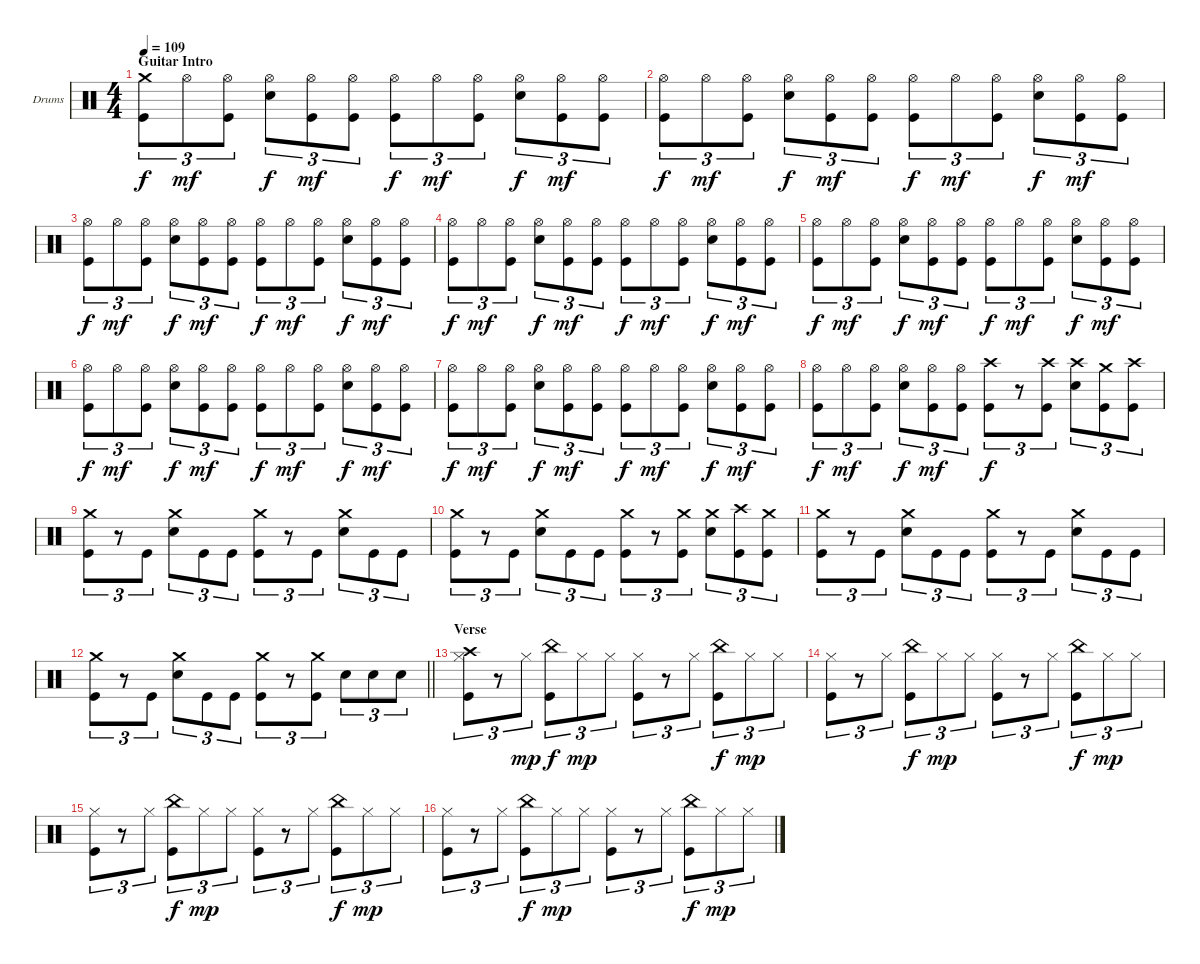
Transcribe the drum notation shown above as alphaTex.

\bracketExtendMode groupsimilarinstruments
\firstSystemTrackNameOrientation horizontal
\otherSystemsTrackNameOrientation horizontal
\track ("Drumkit" "Drums") {instrument percussion}
\staff {score}
\articulation defaults
\ts (4 4)
\section ("" "Guitar Intro")
\tempo 109
\clef neutral
\ks c
("Crash medium (hit)" "Kick (hit)").8{tu (3 2) dy f} "Hi-Hat (open)".8{tu (3 2) dy mf} ("Hi-Hat (open)" "Kick (hit)").8{tu (3 2)} ("Hi-Hat (open)" "Snare (hit) 2").8{tu (3 2) dy f} ("Hi-Hat (open)" "Kick (hit)").8{tu (3 2) dy mf} ("Hi-Hat (open)" "Kick (hit)").8{tu (3 2)} ("Hi-Hat (open)" "Kick (hit)").8{tu (3 2) dy f} "Hi-Hat (open)".8{tu (3 2) dy mf} ("Hi-Hat (open)" "Kick (hit)").8{tu (3 2)} ("Hi-Hat (open)" "Snare (hit) 2").8{tu (3 2) dy f} ("Hi-Hat (open)" "Kick (hit)").8{tu (3 2) dy mf} ("Hi-Hat (open)" "Kick (hit)").8{tu (3 2)} |
("Hi-Hat (open)" "Kick (hit)").8{tu (3 2) dy f} "Hi-Hat (open)".8{tu (3 2) dy mf} ("Hi-Hat (open)" "Kick (hit)").8{tu (3 2)} ("Hi-Hat (open)" "Snare (hit) 2").8{tu (3 2) dy f} ("Hi-Hat (open)" "Kick (hit)").8{tu (3 2) dy mf} ("Hi-Hat (open)" "Kick (hit)").8{tu (3 2)} ("Hi-Hat (open)" "Kick (hit)").8{tu (3 2) dy f} "Hi-Hat (open)".8{tu (3 2) dy mf} ("Hi-Hat (open)" "Kick (hit)").8{tu (3 2)} ("Hi-Hat (open)" "Snare (hit) 2").8{tu (3 2) dy f} ("Hi-Hat (open)" "Kick (hit)").8{tu (3 2) dy mf} ("Hi-Hat (open)" "Kick (hit)").8{tu (3 2)} |
("Hi-Hat (open)" "Kick (hit)").8{tu (3 2) dy f} "Hi-Hat (open)".8{tu (3 2) dy mf} ("Hi-Hat (open)" "Kick (hit)").8{tu (3 2)} ("Hi-Hat (open)" "Snare (hit) 2").8{tu (3 2) dy f} ("Hi-Hat (open)" "Kick (hit)").8{tu (3 2) dy mf} ("Hi-Hat (open)" "Kick (hit)").8{tu (3 2)} ("Hi-Hat (open)" "Kick (hit)").8{tu (3 2) dy f} "Hi-Hat (open)".8{tu (3 2) dy mf} ("Hi-Hat (open)" "Kick (hit)").8{tu (3 2)} ("Hi-Hat (open)" "Snare (hit) 2").8{tu (3 2) dy f} ("Hi-Hat (open)" "Kick (hit)").8{tu (3 2) dy mf} ("Hi-Hat (open)" "Kick (hit)").8{tu (3 2)} |
("Hi-Hat (open)" "Kick (hit)").8{tu (3 2) dy f} "Hi-Hat (open)".8{tu (3 2) dy mf} ("Hi-Hat (open)" "Kick (hit)").8{tu (3 2)} ("Hi-Hat (open)" "Snare (hit) 2").8{tu (3 2) dy f} ("Hi-Hat (open)" "Kick (hit)").8{tu (3 2) dy mf} ("Hi-Hat (open)" "Kick (hit)").8{tu (3 2)} ("Hi-Hat (open)" "Kick (hit)").8{tu (3 2) dy f} "Hi-Hat (open)".8{tu (3 2) dy mf} ("Hi-Hat (open)" "Kick (hit)").8{tu (3 2)} ("Hi-Hat (open)" "Snare (hit) 2").8{tu (3 2) dy f} ("Hi-Hat (open)" "Kick (hit)").8{tu (3 2) dy mf} ("Hi-Hat (open)" "Kick (hit)").8{tu (3 2)} |
("Hi-Hat (open)" "Kick (hit)").8{tu (3 2) dy f} "Hi-Hat (open)".8{tu (3 2) dy mf} ("Hi-Hat (open)" "Kick (hit)").8{tu (3 2)} ("Hi-Hat (open)" "Snare (hit) 2").8{tu (3 2) dy f} ("Hi-Hat (open)" "Kick (hit)").8{tu (3 2) dy mf} ("Hi-Hat (open)" "Kick (hit)").8{tu (3 2)} ("Hi-Hat (open)" "Kick (hit)").8{tu (3 2) dy f} "Hi-Hat (open)".8{tu (3 2) dy mf} ("Hi-Hat (open)" "Kick (hit)").8{tu (3 2)} ("Hi-Hat (open)" "Snare (hit) 2").8{tu (3 2) dy f} ("Hi-Hat (open)" "Kick (hit)").8{tu (3 2) dy mf} ("Hi-Hat (open)" "Kick (hit)").8{tu (3 2)} |
("Hi-Hat (open)" "Kick (hit)").8{tu (3 2) dy f} "Hi-Hat (open)".8{tu (3 2) dy mf} ("Hi-Hat (open)" "Kick (hit)").8{tu (3 2)} ("Hi-Hat (open)" "Snare (hit) 2").8{tu (3 2) dy f} ("Hi-Hat (open)" "Kick (hit)").8{tu (3 2) dy mf} ("Hi-Hat (open)" "Kick (hit)").8{tu (3 2)} ("Hi-Hat (open)" "Kick (hit)").8{tu (3 2) dy f} "Hi-Hat (open)".8{tu (3 2) dy mf} ("Hi-Hat (open)" "Kick (hit)").8{tu (3 2)} ("Hi-Hat (open)" "Snare (hit) 2").8{tu (3 2) dy f} ("Hi-Hat (open)" "Kick (hit)").8{tu (3 2) dy mf} ("Hi-Hat (open)" "Kick (hit)").8{tu (3 2)} |
("Hi-Hat (open)" "Kick (hit)").8{tu (3 2) dy f} "Hi-Hat (open)".8{tu (3 2) dy mf} ("Hi-Hat (open)" "Kick (hit)").8{tu (3 2)} ("Hi-Hat (open)" "Snare (hit) 2").8{tu (3 2) dy f} ("Hi-Hat (open)" "Kick (hit)").8{tu (3 2) dy mf} ("Hi-Hat (open)" "Kick (hit)").8{tu (3 2)} ("Hi-Hat (open)" "Kick (hit)").8{tu (3 2) dy f} "Hi-Hat (open)".8{tu (3 2) dy mf} ("Hi-Hat (open)" "Kick (hit)").8{tu (3 2)} ("Hi-Hat (open)" "Snare (hit) 2").8{tu (3 2) dy f} ("Hi-Hat (open)" "Kick (hit)").8{tu (3 2) dy mf} ("Hi-Hat (open)" "Kick (hit)").8{tu (3 2)} |
("Hi-Hat (open)" "Kick (hit)").8{tu (3 2) dy f} "Hi-Hat (open)".8{tu (3 2) dy mf} ("Hi-Hat (open)" "Kick (hit)").8{tu (3 2)} ("Hi-Hat (open)" "Snare (hit) 2").8{tu (3 2) dy f} ("Hi-Hat (open)" "Kick (hit)").8{tu (3 2) dy mf} ("Hi-Hat (open)" "Kick (hit)").8{tu (3 2)} ("Crash high (hit)" "Kick (hit)").8{tu (3 2) dy f} r.8{tu (3 2)} ("Crash high (hit)" "Kick (hit)").8{tu (3 2)} ("Crash high (hit)" "Snare (hit) 2").8{tu (3 2)} ("Crash medium (hit)" "Kick (hit)").8{tu (3 2)} ("Crash high (hit)" "Kick (hit)").8{tu (3 2)} |
("Crash medium (hit)" "Kick (hit)").8{tu (3 2)} r.8{tu (3 2)} "Kick (hit)".8{tu (3 2)} ("Crash medium (hit)" "Snare (hit) 2").8{tu (3 2)} "Kick (hit)".8{tu (3 2)} "Kick (hit)".8{tu (3 2)} ("Crash medium (hit)" "Kick (hit)").8{tu (3 2)} r.8{tu (3 2)} "Kick (hit)".8{tu (3 2)} ("Crash medium (hit)" "Snare (hit) 2").8{tu (3 2)} "Kick (hit)".8{tu (3 2)} "Kick (hit)".8{tu (3 2)} |
("Crash medium (hit)" "Kick (hit)").8{tu (3 2)} r.8{tu (3 2)} "Kick (hit)".8{tu (3 2)} ("Crash medium (hit)" "Snare (hit) 2").8{tu (3 2)} "Kick (hit)".8{tu (3 2)} "Kick (hit)".8{tu (3 2)} ("Crash medium (hit)" "Kick (hit)").8{tu (3 2)} r.8{tu (3 2)} ("Crash medium (hit)" "Kick (hit)").8{tu (3 2)} ("Crash medium (hit)" "Snare (hit) 2").8{tu (3 2)} ("Crash high (hit)" "Kick (hit)").8{tu (3 2)} ("Crash medium (hit)" "Kick (hit)").8{tu (3 2)} |
("Crash medium (hit)" "Kick (hit)").8{tu (3 2)} r.8{tu (3 2)} "Kick (hit)".8{tu (3 2)} ("Crash medium (hit)" "Snare (hit) 2").8{tu (3 2)} "Kick (hit)".8{tu (3 2)} "Kick (hit)".8{tu (3 2)} ("Crash medium (hit)" "Kick (hit)").8{tu (3 2)} r.8{tu (3 2)} "Kick (hit)".8{tu (3 2)} ("Crash medium (hit)" "Snare (hit) 2").8{tu (3 2)} "Kick (hit)".8{tu (3 2)} "Kick (hit)".8{tu (3 2)} |
\barLineRight lightlight
("Crash medium (hit)" "Kick (hit)").8{tu (3 2)} r.8{tu (3 2)} "Kick (hit)".8{tu (3 2)} ("Crash medium (hit)" "Snare (hit) 2").8{tu (3 2)} "Kick (hit)".8{tu (3 2)} "Kick (hit)".8{tu (3 2)} ("Crash medium (hit)" "Kick (hit)").8{tu (3 2)} r.8{tu (3 2)} ("Crash medium (hit)" "Kick (hit)").8{tu (3 2)} "Snare (hit) 2".8{tu (3 2)} "Snare (hit) 2".8{tu (3 2)} "Snare (hit) 2".8{tu (3 2)} |
\section ("" "Verse")
("Crash high (hit)" "Hi-Hat (closed)" "Kick (hit)").8{tu (3 2)} r.8{tu (3 2)} "Hi-Hat (closed)".8{tu (3 2) dy mp} ("China (hit)" "Kick (hit)").8{tu (3 2) dy f} "Hi-Hat (closed)".8{tu (3 2) dy mp} "Hi-Hat (closed)".8{tu (3 2)} ("Hi-Hat (closed)" "Kick (hit)").8{tu (3 2)} r.8{tu (3 2)} "Hi-Hat (closed)".8{tu (3 2)} ("China (hit)" "Kick (hit)").8{tu (3 2) dy f} "Hi-Hat (closed)".8{tu (3 2) dy mp} "Hi-Hat (closed)".8{tu (3 2)} |
("Hi-Hat (closed)" "Kick (hit)").8{tu (3 2)} r.8{tu (3 2)} "Hi-Hat (closed)".8{tu (3 2)} ("China (hit)" "Kick (hit)").8{tu (3 2) dy f} "Hi-Hat (closed)".8{tu (3 2) dy mp} "Hi-Hat (closed)".8{tu (3 2)} ("Hi-Hat (closed)" "Kick (hit)").8{tu (3 2)} r.8{tu (3 2)} "Hi-Hat (closed)".8{tu (3 2)} ("China (hit)" "Kick (hit)").8{tu (3 2) dy f} "Hi-Hat (closed)".8{tu (3 2) dy mp} "Hi-Hat (closed)".8{tu (3 2)} |
("Hi-Hat (closed)" "Kick (hit)").8{tu (3 2)} r.8{tu (3 2)} "Hi-Hat (closed)".8{tu (3 2)} ("China (hit)" "Kick (hit)").8{tu (3 2) dy f} "Hi-Hat (closed)".8{tu (3 2) dy mp} "Hi-Hat (closed)".8{tu (3 2)} ("Hi-Hat (closed)" "Kick (hit)").8{tu (3 2)} r.8{tu (3 2)} "Hi-Hat (closed)".8{tu (3 2)} ("China (hit)" "Kick (hit)").8{tu (3 2) dy f} "Hi-Hat (closed)".8{tu (3 2) dy mp} "Hi-Hat (closed)".8{tu (3 2)} |
("Hi-Hat (closed)" "Kick (hit)").8{tu (3 2)} r.8{tu (3 2)} "Hi-Hat (closed)".8{tu (3 2)} ("China (hit)" "Kick (hit)").8{tu (3 2) dy f} "Hi-Hat (closed)".8{tu (3 2) dy mp} "Hi-Hat (closed)".8{tu (3 2)} ("Hi-Hat (closed)" "Kick (hit)").8{tu (3 2)} r.8{tu (3 2)} "Hi-Hat (closed)".8{tu (3 2)} ("China (hit)" "Kick (hit)").8{tu (3 2) dy f} "Hi-Hat (closed)".8{tu (3 2) dy mp} "Hi-Hat (closed)".8{tu (3 2)}
